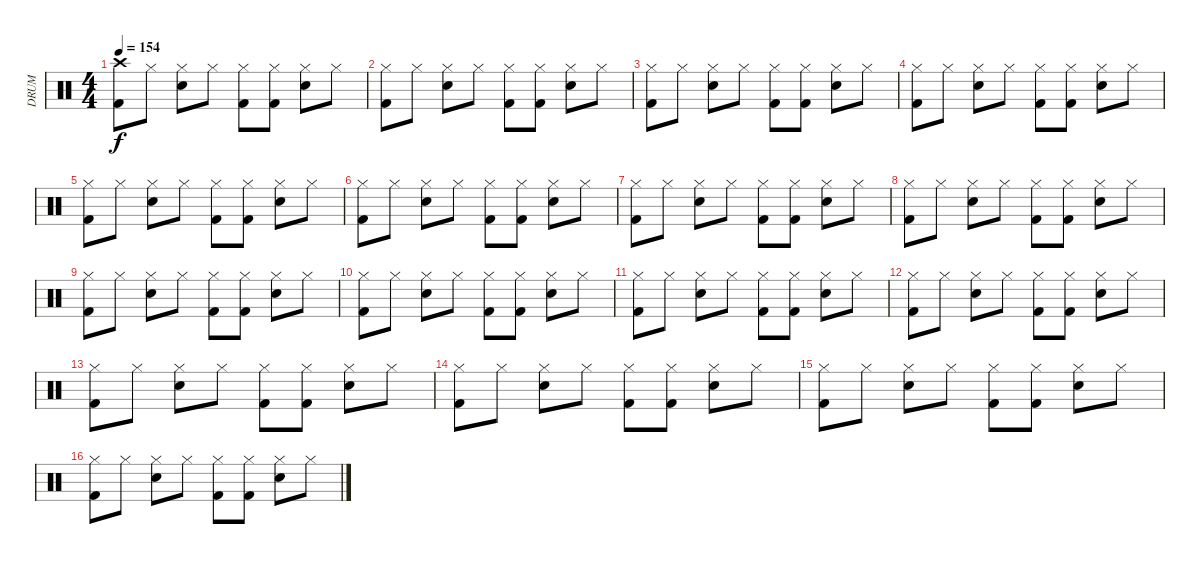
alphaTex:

\track ("DRUM" "DRUM") {instrument percussion}
\staff {score}
\articulation defaults
\ts (4 4)
\tempo 154
\clef neutral
\ks c
("Crash high (hit)" "Kick (hit) 2").8{dy f} "Hi-Hat (closed)".8 ("Hi-Hat (closed)" "Snare (hit) 2").8 "Hi-Hat (closed)".8 ("Hi-Hat (closed)" "Kick (hit) 2").8 ("Hi-Hat (closed)" "Kick (hit) 2").8 ("Hi-Hat (closed)" "Snare (hit) 2").8 "Hi-Hat (closed)".8 |
("Hi-Hat (closed)" "Kick (hit) 2").8 "Hi-Hat (closed)".8 ("Hi-Hat (closed)" "Snare (hit) 2").8 "Hi-Hat (closed)".8 ("Hi-Hat (closed)" "Kick (hit) 2").8 ("Hi-Hat (closed)" "Kick (hit) 2").8 ("Hi-Hat (closed)" "Snare (hit) 2").8 "Hi-Hat (closed)".8 |
("Hi-Hat (closed)" "Kick (hit) 2").8 "Hi-Hat (closed)".8 ("Hi-Hat (closed)" "Snare (hit) 2").8 "Hi-Hat (closed)".8 ("Hi-Hat (closed)" "Kick (hit) 2").8 ("Hi-Hat (closed)" "Kick (hit) 2").8 ("Hi-Hat (closed)" "Snare (hit) 2").8 "Hi-Hat (closed)".8 |
("Hi-Hat (closed)" "Kick (hit) 2").8 "Hi-Hat (closed)".8 ("Hi-Hat (closed)" "Snare (hit) 2").8 "Hi-Hat (closed)".8 ("Hi-Hat (closed)" "Kick (hit) 2").8 ("Hi-Hat (closed)" "Kick (hit) 2").8 ("Hi-Hat (closed)" "Snare (hit) 2").8 "Hi-Hat (closed)".8 |
("Hi-Hat (closed)" "Kick (hit) 2").8 "Hi-Hat (closed)".8 ("Hi-Hat (closed)" "Snare (hit) 2").8 "Hi-Hat (closed)".8 ("Hi-Hat (closed)" "Kick (hit) 2").8 ("Hi-Hat (closed)" "Kick (hit) 2").8 ("Hi-Hat (closed)" "Snare (hit) 2").8 "Hi-Hat (closed)".8 |
("Hi-Hat (closed)" "Kick (hit) 2").8 "Hi-Hat (closed)".8 ("Hi-Hat (closed)" "Snare (hit) 2").8 "Hi-Hat (closed)".8 ("Hi-Hat (closed)" "Kick (hit) 2").8 ("Hi-Hat (closed)" "Kick (hit) 2").8 ("Hi-Hat (closed)" "Snare (hit) 2").8 "Hi-Hat (closed)".8 |
("Hi-Hat (closed)" "Kick (hit) 2").8 "Hi-Hat (closed)".8 ("Hi-Hat (closed)" "Snare (hit) 2").8 "Hi-Hat (closed)".8 ("Hi-Hat (closed)" "Kick (hit) 2").8 ("Hi-Hat (closed)" "Kick (hit) 2").8 ("Hi-Hat (closed)" "Snare (hit) 2").8 "Hi-Hat (closed)".8 |
("Hi-Hat (closed)" "Kick (hit) 2").8 "Hi-Hat (closed)".8 ("Hi-Hat (closed)" "Snare (hit) 2").8 "Hi-Hat (closed)".8 ("Hi-Hat (closed)" "Kick (hit) 2").8 ("Hi-Hat (closed)" "Kick (hit) 2").8 ("Hi-Hat (closed)" "Snare (hit) 2").8 "Hi-Hat (closed)".8 |
("Hi-Hat (closed)" "Kick (hit) 2").8 "Hi-Hat (closed)".8 ("Hi-Hat (closed)" "Snare (hit) 2").8 "Hi-Hat (closed)".8 ("Hi-Hat (closed)" "Kick (hit) 2").8 ("Hi-Hat (closed)" "Kick (hit) 2").8 ("Hi-Hat (closed)" "Snare (hit) 2").8 "Hi-Hat (closed)".8 |
("Hi-Hat (closed)" "Kick (hit) 2").8 "Hi-Hat (closed)".8 ("Hi-Hat (closed)" "Snare (hit) 2").8 "Hi-Hat (closed)".8 ("Hi-Hat (closed)" "Kick (hit) 2").8 ("Hi-Hat (closed)" "Kick (hit) 2").8 ("Hi-Hat (closed)" "Snare (hit) 2").8 "Hi-Hat (closed)".8 |
("Hi-Hat (closed)" "Kick (hit) 2").8 "Hi-Hat (closed)".8 ("Hi-Hat (closed)" "Snare (hit) 2").8 "Hi-Hat (closed)".8 ("Hi-Hat (closed)" "Kick (hit) 2").8 ("Hi-Hat (closed)" "Kick (hit) 2").8 ("Hi-Hat (closed)" "Snare (hit) 2").8 "Hi-Hat (closed)".8 |
("Hi-Hat (closed)" "Kick (hit) 2").8 "Hi-Hat (closed)".8 ("Hi-Hat (closed)" "Snare (hit) 2").8 "Hi-Hat (closed)".8 ("Hi-Hat (closed)" "Kick (hit) 2").8 ("Hi-Hat (closed)" "Kick (hit) 2").8 ("Hi-Hat (closed)" "Snare (hit) 2").8 "Hi-Hat (closed)".8 |
("Hi-Hat (closed)" "Kick (hit) 2").8 "Hi-Hat (closed)".8 ("Hi-Hat (closed)" "Snare (hit) 2").8 "Hi-Hat (closed)".8 ("Hi-Hat (closed)" "Kick (hit) 2").8 ("Hi-Hat (closed)" "Kick (hit) 2").8 ("Hi-Hat (closed)" "Snare (hit) 2").8 "Hi-Hat (closed)".8 |
("Hi-Hat (closed)" "Kick (hit) 2").8 "Hi-Hat (closed)".8 ("Hi-Hat (closed)" "Snare (hit) 2").8 "Hi-Hat (closed)".8 ("Hi-Hat (closed)" "Kick (hit) 2").8 ("Hi-Hat (closed)" "Kick (hit) 2").8 ("Hi-Hat (closed)" "Snare (hit) 2").8 "Hi-Hat (closed)".8 |
("Hi-Hat (closed)" "Kick (hit) 2").8 "Hi-Hat (closed)".8 ("Hi-Hat (closed)" "Snare (hit) 2").8 "Hi-Hat (closed)".8 ("Hi-Hat (closed)" "Kick (hit) 2").8 ("Hi-Hat (closed)" "Kick (hit) 2").8 ("Hi-Hat (closed)" "Snare (hit) 2").8 "Hi-Hat (closed)".8 |
("Hi-Hat (closed)" "Kick (hit) 2").8 "Hi-Hat (closed)".8 ("Hi-Hat (closed)" "Snare (hit) 2").8 "Hi-Hat (closed)".8 ("Hi-Hat (closed)" "Kick (hit) 2").8 ("Hi-Hat (closed)" "Kick (hit) 2").8 ("Hi-Hat (closed)" "Snare (hit) 2").8 "Hi-Hat (closed)".8
